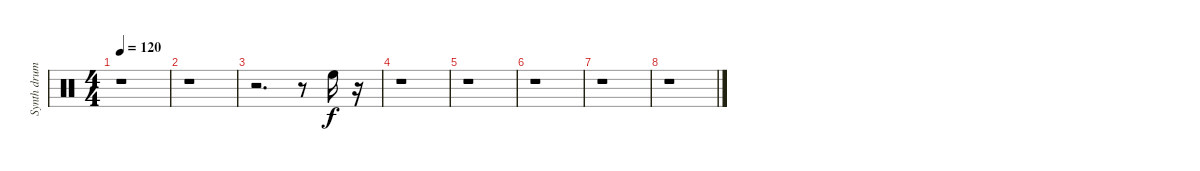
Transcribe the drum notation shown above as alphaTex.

\track ("Synth drum" "Synth drum") {instrument percussion}
\staff {score}
\articulation defaults
\ts (4 4)
\tempo 120
\clef neutral
\ks c
r.1{dy f} |
r.1 |
r.2{d} r.8 "High Floor Tom (hit)".16 r.16 |
r.1 |
r.1 |
r.1 |
r.1 |
r.1
